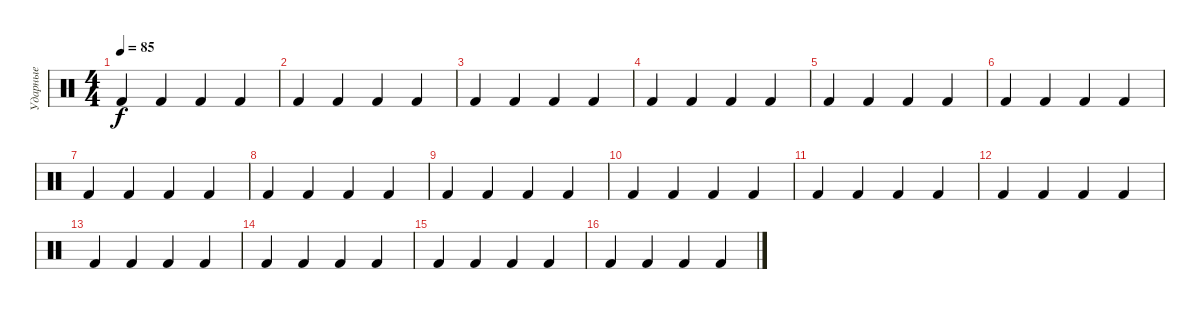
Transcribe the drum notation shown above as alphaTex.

\track ("Ударные" "Ударные") {instrument percussion}
\staff {score}
\articulation defaults
\ts (4 4)
\tempo 85
\clef neutral
\ks c "Kick (hit) 2".4{dy f} "Kick (hit) 2".4 "Kick (hit) 2".4 "Kick (hit) 2".4
|
"Kick (hit) 2".4 "Kick (hit) 2".4 "Kick (hit) 2".4 "Kick (hit) 2".4 |
"Kick (hit) 2".4 "Kick (hit) 2".4 "Kick (hit) 2".4 "Kick (hit) 2".4 |
"Kick (hit) 2".4 "Kick (hit) 2".4 "Kick (hit) 2".4 "Kick (hit) 2".4 |
"Kick (hit) 2".4 "Kick (hit) 2".4 "Kick (hit) 2".4 "Kick (hit) 2".4 |
"Kick (hit) 2".4 "Kick (hit) 2".4 "Kick (hit) 2".4 "Kick (hit) 2".4 |
"Kick (hit) 2".4 "Kick (hit) 2".4 "Kick (hit) 2".4 "Kick (hit) 2".4 |
"Kick (hit) 2".4 "Kick (hit) 2".4 "Kick (hit) 2".4 "Kick (hit) 2".4 |
"Kick (hit) 2".4 "Kick (hit) 2".4 "Kick (hit) 2".4 "Kick (hit) 2".4 |
"Kick (hit) 2".4 "Kick (hit) 2".4 "Kick (hit) 2".4 "Kick (hit) 2".4 |
"Kick (hit) 2".4 "Kick (hit) 2".4 "Kick (hit) 2".4 "Kick (hit) 2".4 |
"Kick (hit) 2".4 "Kick (hit) 2".4 "Kick (hit) 2".4 "Kick (hit) 2".4 |
"Kick (hit) 2".4 "Kick (hit) 2".4 "Kick (hit) 2".4 "Kick (hit) 2".4 |
"Kick (hit) 2".4 "Kick (hit) 2".4 "Kick (hit) 2".4 "Kick (hit) 2".4 |
"Kick (hit) 2".4 "Kick (hit) 2".4 "Kick (hit) 2".4 "Kick (hit) 2".4 |
"Kick (hit) 2".4 "Kick (hit) 2".4 "Kick (hit) 2".4 "Kick (hit) 2".4
